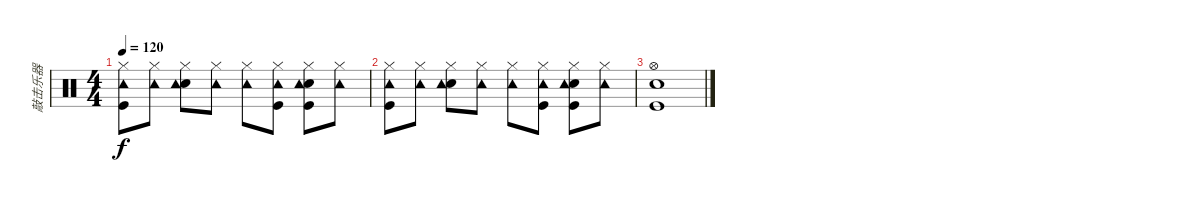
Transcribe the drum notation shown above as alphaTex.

\track ("敲击乐器" "敲击乐器") {instrument percussion}
\staff {score}
\articulation defaults
\ts (4 4)
\tempo 120
\clef neutral
\ks c
("Hi-Hat (closed)" "Kick (hit)" "Tambourine (hit)").8{dy f} ("Hi-Hat (closed)" "Tambourine (hit)").8 ("Hi-Hat (closed)" "Snare (hit) 2" "Tambourine (hit)").8 ("Hi-Hat (closed)" "Tambourine (hit)").8 ("Hi-Hat (closed)" "Tambourine (hit)").8 ("Hi-Hat (closed)" "Kick (hit)" "Tambourine (hit)").8 ("Hi-Hat (closed)" "Snare (hit) 2" "Kick (hit)" "Tambourine (hit)").8 ("Hi-Hat (closed)" "Tambourine (hit)").8 |
("Hi-Hat (closed)" "Kick (hit)" "Tambourine (hit)").8 ("Hi-Hat (closed)" "Tambourine (hit)").8 ("Hi-Hat (closed)" "Snare (hit) 2" "Tambourine (hit)").8 ("Hi-Hat (closed)" "Tambourine (hit)").8 ("Hi-Hat (closed)" "Tambourine (hit)").8 ("Hi-Hat (closed)" "Kick (hit)" "Tambourine (hit)").8 ("Hi-Hat (closed)" "Snare (hit) 2" "Kick (hit)" "Tambourine (hit)").8 ("Hi-Hat (closed)" "Tambourine (hit)").8 |
("Snare (hit) 2" "Hi-Hat (open)" "Kick (hit)").1
